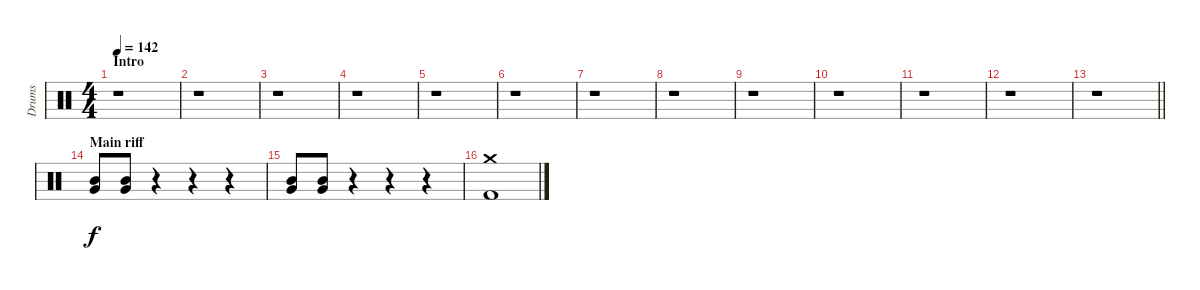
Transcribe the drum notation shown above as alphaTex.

\track ("Drums" "Drums") {instrument percussion}
\staff {score}
\articulation defaults
\ts (4 4)
\section ("" "Intro")
\tempo 142
\clef neutral
\ks c
r.1{dy f} |
r.1 |
r.1 |
r.1 |
r.1 |
r.1 |
r.1 |
r.1 |
r.1 |
r.1 |
r.1 |
r.1 |
\barLineRight lightlight
r.1 |
\section ("" "Main riff")
("Mid Tom (hit)" "Very Low Tom (hit)").8 ("Mid Tom (hit)" "Very Low Tom (hit)").8 r.4 r.4 r.4 |
("Mid Tom (hit)" "Very Low Tom (hit)").8 ("Mid Tom (hit)" "Very Low Tom (hit)").8 r.4 r.4 r.4 |
("Kick (hit) 2" "Crash medium (hit)").1
